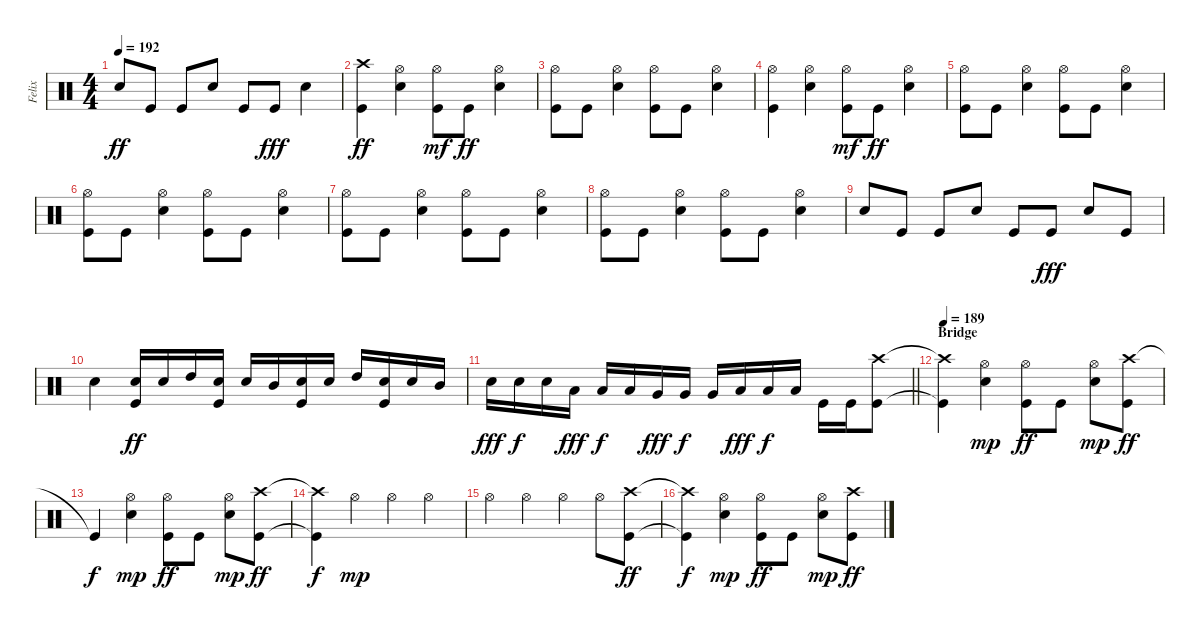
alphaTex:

\track ("Felix" "Felix") {instrument percussion}
\staff {score}
\articulation defaults
\ts (4 4)
\tempo 192
\clef neutral
\ks c "Snare (hit) 2".8{dy ff} "Kick (hit)".8 "Kick (hit)".8 "Snare (hit) 2".8 "Kick (hit)".8 "Kick (hit)".8{dy fff} "Snare (hit) 2".4
|
("Crash high (hit)" "Kick (hit)").4{dy ff} ("Hi-Hat (open)" "Snare (hit) 2").4 ("Hi-Hat (open)" "Kick (hit)").8{dy mf} "Kick (hit)".8{dy ff} ("Hi-Hat (open)" "Snare (hit) 2").4 |
("Hi-Hat (open)" "Kick (hit)").8 "Kick (hit)".8 ("Hi-Hat (open)" "Snare (hit) 2").4 ("Hi-Hat (open)" "Kick (hit)").8 "Kick (hit)".8 ("Hi-Hat (open)" "Snare (hit) 2").4 |
("Hi-Hat (open)" "Kick (hit)").4 ("Hi-Hat (open)" "Snare (hit) 2").4 ("Hi-Hat (open)" "Kick (hit)").8{dy mf} "Kick (hit)".8{dy ff} ("Hi-Hat (open)" "Snare (hit) 2").4 |
("Hi-Hat (open)" "Kick (hit)").8 "Kick (hit)".8 ("Hi-Hat (open)" "Snare (hit) 2").4 ("Hi-Hat (open)" "Kick (hit)").8 "Kick (hit)".8 ("Hi-Hat (open)" "Snare (hit) 2").4 |
("Hi-Hat (open)" "Kick (hit)").8 "Kick (hit)".8 ("Hi-Hat (open)" "Snare (hit) 2").4 ("Hi-Hat (open)" "Kick (hit)").8 "Kick (hit)".8 ("Hi-Hat (open)" "Snare (hit) 2").4 |
("Hi-Hat (open)" "Kick (hit)").8 "Kick (hit)".8 ("Hi-Hat (open)" "Snare (hit) 2").4 ("Hi-Hat (open)" "Kick (hit)").8 "Kick (hit)".8 ("Hi-Hat (open)" "Snare (hit) 2").4 |
("Hi-Hat (open)" "Kick (hit)").8 "Kick (hit)".8 ("Hi-Hat (open)" "Snare (hit) 2").4 ("Hi-Hat (open)" "Kick (hit)").8 "Kick (hit)".8 ("Hi-Hat (open)" "Snare (hit) 2").4 |
"Snare (hit) 2".8 "Kick (hit)".8 "Kick (hit)".8 "Snare (hit) 2".8 "Kick (hit)".8 "Kick (hit)".8{dy fff} "Snare (hit) 2".8 "Kick (hit)".8 |
"Snare (hit) 2".4 ("Snare (hit) 2" "Kick (hit)").16{dy ff} "Snare (hit) 2".16 "High Tom (hit)".16 ("Snare (hit) 2" "Kick (hit)").16 "Snare (hit) 2".16 "Mid Tom (hit)".16 ("Snare (hit) 2" "Kick (hit)").16 "Snare (hit) 2".16 "High Tom (hit)".16 ("Snare (hit) 2" "Kick (hit)").16 "Snare (hit) 2".16 "Mid Tom (hit)".16 |
\barLineRight lightlight "Snare (hit) 2".16{dy fff} "Snare (hit) 2".16{dy f} "Snare (hit) 2".16 "Low Tom (hit)".16{dy fff} "Low Tom (hit)".16{dy f} "Low Tom (hit)".16 "Very Low Tom (hit)".16{dy fff} "Very Low Tom (hit)".16{dy f} "Very Low Tom (hit)".16 "Low Floor Tom (hit)".16{dy fff} "Low Floor Tom (hit)".16{dy f} "Low Floor Tom (hit)".16 "Kick (hit)".16 "Kick (hit)".16
("Crash high (hit)" "Kick (hit)").8 |
\section ("" "Bridge")
\tempo 189
("Crash high (hit)"{t} "Kick (hit)"{t}).4 ("Hi-Hat (open)" "Snare (hit) 2").4{dy mp} ("Hi-Hat (open)" "Kick (hit)").8{dy ff} "Kick (hit)".8 ("Hi-Hat (open)" "Snare (hit) 2").8{dy mp} ("Crash high (hit)" "Kick (hit)").8{dy ff} |
"Kick (hit)"{t}.4{dy f} ("Hi-Hat (open)" "Snare (hit) 2").4{dy mp} ("Hi-Hat (open)" "Kick (hit)").8{dy ff} "Kick (hit)".8 ("Hi-Hat (open)" "Snare (hit) 2").8{dy mp} ("Crash high (hit)" "Kick (hit)").8{dy ff} |
("Crash high (hit)"{t} "Kick (hit)"{t}).4{dy f} "Hi-Hat (open)".4{dy mp} "Hi-Hat (open)".4 "Hi-Hat (open)".4 |
"Hi-Hat (open)".4 "Hi-Hat (open)".4 "Hi-Hat (open)".4 "Hi-Hat (open)".8 ("Crash high (hit)" "Kick (hit)").8{dy ff} |
("Crash high (hit)"{t} "Kick (hit)"{t}).4{dy f} ("Hi-Hat (open)" "Snare (hit) 2").4{dy mp} ("Hi-Hat (open)" "Kick (hit)").8{dy ff} "Kick (hit)".8 ("Hi-Hat (open)" "Snare (hit) 2").8{dy mp} ("Crash high (hit)" "Kick (hit)").8{dy ff}
